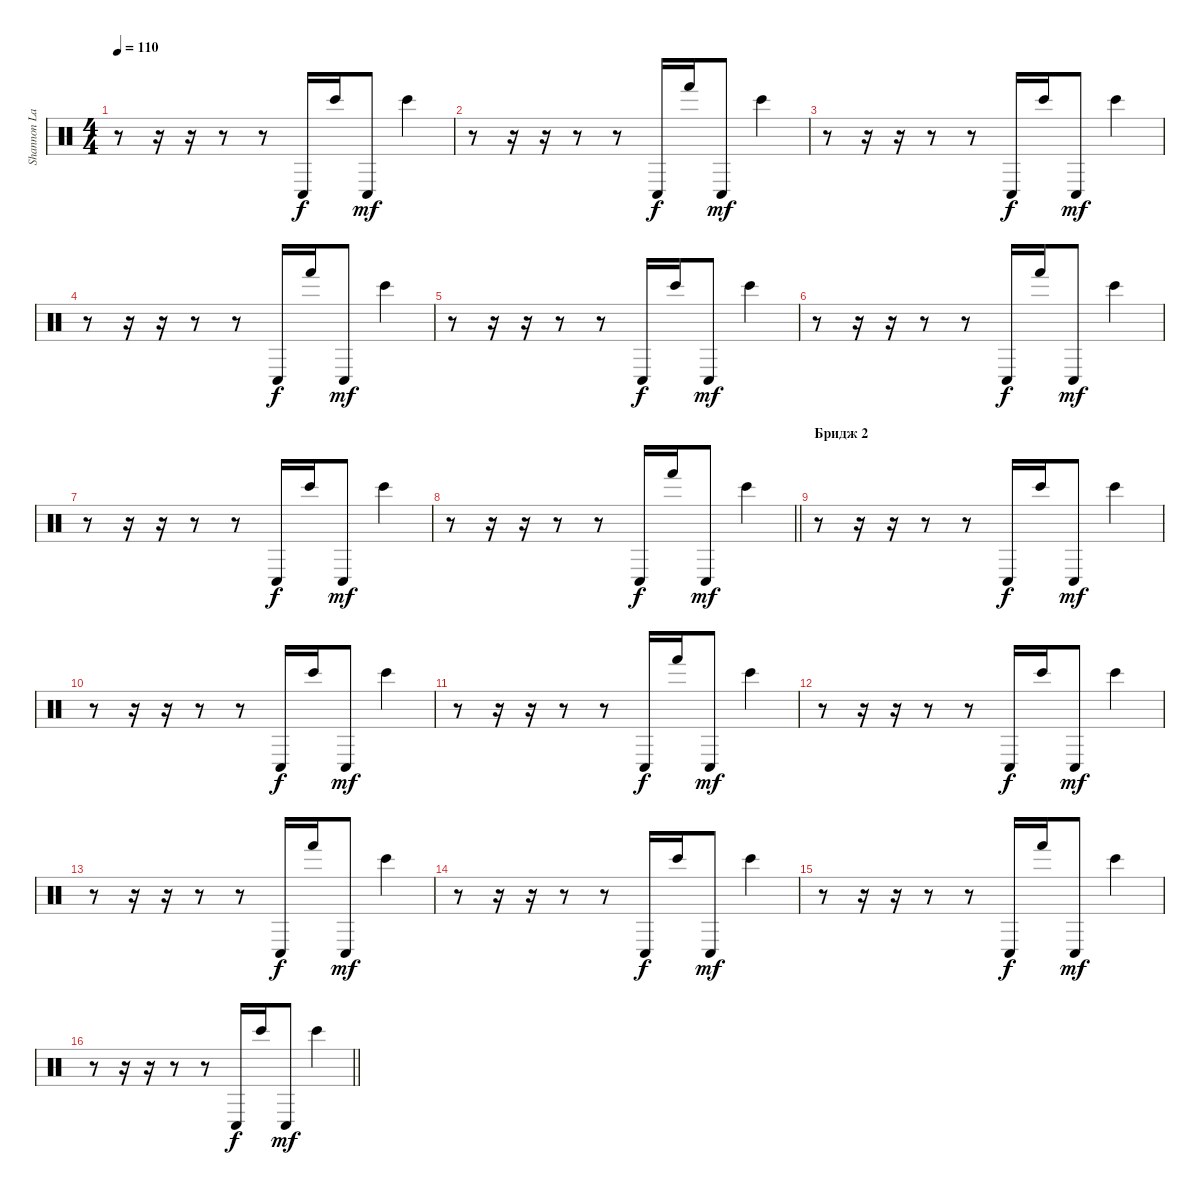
\track ("Shannon Larkin [Percussion 2]" "Shannon La") {instrument percussion}
\staff {score}
\articulation defaults
\ts (4 4)
\tempo 110
\clef neutral
\ks c
r.8{dy mf} r.16 r.16 r.8 r.8 "Conga low (hit)".16{dy f} "Bongo High (hit)".16 "Conga low (hit)".8{dy mf} "Bongo High (hit)".4 |
r.8 r.16 r.16 r.8 r.8 "Conga low (hit)".16{dy f} "Hand (hit)".16 "Conga low (hit)".8{dy mf} "Bongo High (hit)".4 |
r.8 r.16 r.16 r.8 r.8 "Conga low (hit)".16{dy f} "Bongo High (hit)".16 "Conga low (hit)".8{dy mf} "Bongo High (hit)".4 |
r.8 r.16 r.16 r.8 r.8 "Conga low (hit)".16{dy f} "Hand (hit)".16 "Conga low (hit)".8{dy mf} "Bongo High (hit)".4 |
r.8 r.16 r.16 r.8 r.8 "Conga low (hit)".16{dy f} "Bongo High (hit)".16 "Conga low (hit)".8{dy mf} "Bongo High (hit)".4 |
r.8 r.16 r.16 r.8 r.8 "Conga low (hit)".16{dy f} "Hand (hit)".16 "Conga low (hit)".8{dy mf} "Bongo High (hit)".4 |
r.8 r.16 r.16 r.8 r.8 "Conga low (hit)".16{dy f} "Bongo High (hit)".16 "Conga low (hit)".8{dy mf} "Bongo High (hit)".4 |
\barLineRight lightlight
r.8 r.16 r.16 r.8 r.8 "Conga low (hit)".16{dy f} "Hand (hit)".16 "Conga low (hit)".8{dy mf} "Bongo High (hit)".4 |
\section ("" "Бридж 2")
r.8 r.16 r.16 r.8 r.8 "Conga low (hit)".16{dy f} "Bongo High (hit)".16 "Conga low (hit)".8{dy mf} "Bongo High (hit)".4 |
r.8 r.16 r.16 r.8 r.8 "Conga low (hit)".16{dy f} "Bongo High (hit)".16 "Conga low (hit)".8{dy mf} "Bongo High (hit)".4 |
r.8 r.16 r.16 r.8 r.8 "Conga low (hit)".16{dy f} "Hand (hit)".16 "Conga low (hit)".8{dy mf} "Bongo High (hit)".4 |
r.8 r.16 r.16 r.8 r.8 "Conga low (hit)".16{dy f} "Bongo High (hit)".16 "Conga low (hit)".8{dy mf} "Bongo High (hit)".4 |
r.8 r.16 r.16 r.8 r.8 "Conga low (hit)".16{dy f} "Hand (hit)".16 "Conga low (hit)".8{dy mf} "Bongo High (hit)".4 |
r.8 r.16 r.16 r.8 r.8 "Conga low (hit)".16{dy f} "Bongo High (hit)".16 "Conga low (hit)".8{dy mf} "Bongo High (hit)".4 |
r.8 r.16 r.16 r.8 r.8 "Conga low (hit)".16{dy f} "Hand (hit)".16 "Conga low (hit)".8{dy mf} "Bongo High (hit)".4 |
\barLineRight lightlight
r.8 r.16 r.16 r.8 r.8 "Conga low (hit)".16{dy f} "Bongo High (hit)".16 "Conga low (hit)".8{dy mf} "Bongo High (hit)".4
